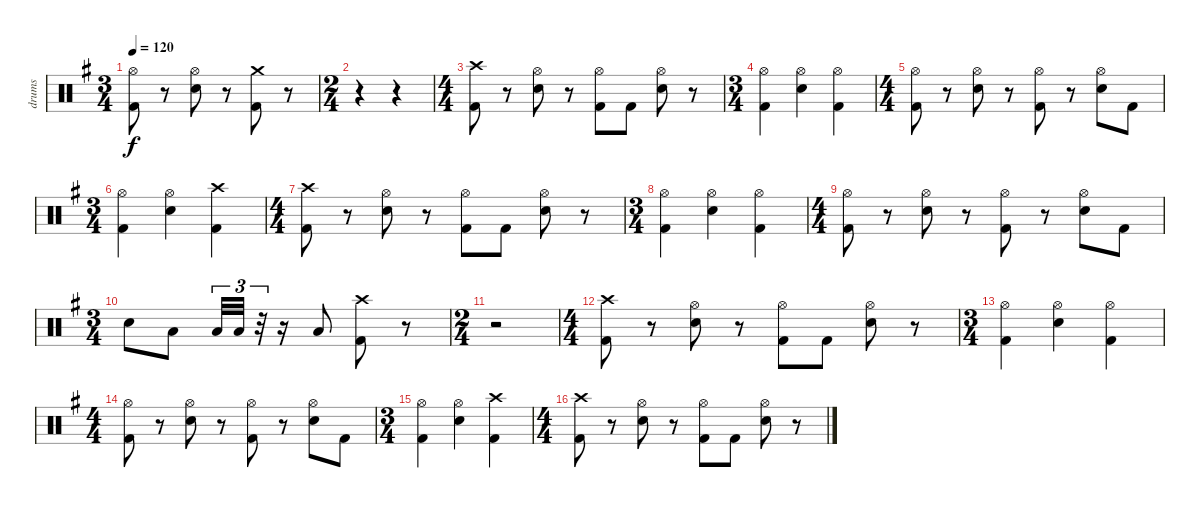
\track ("drums" "drums") {instrument percussion}
\staff {score}
\articulation defaults
\ts (3 4)
\tempo 120
\clef neutral
\ks g
("Hi-Hat (open)" "Kick (hit) 2").8{dy f} r.8 ("Hi-Hat (open)" "Snare (hit) 2").8 r.8 ("Crash medium (hit)" "Kick (hit) 2").8 r.8 |
\ts (2 4)
r.4 r.4 |
\ts (4 4)
("Crash high (hit)" "Kick (hit) 2").8 r.8 ("Hi-Hat (open)" "Snare (hit) 2").8 r.8 ("Hi-Hat (open)" "Kick (hit) 2").8 "Kick (hit) 2".8 ("Hi-Hat (open)" "Snare (hit) 2").8 r.8 |
\ts (3 4)
("Hi-Hat (open)" "Kick (hit) 2").4 ("Hi-Hat (open)" "Snare (hit) 2").4 ("Hi-Hat (open)" "Kick (hit) 2").4 |
\ts (4 4)
("Hi-Hat (open)" "Kick (hit) 2").8 r.8 ("Hi-Hat (open)" "Snare (hit) 2").8 r.8 ("Hi-Hat (open)" "Kick (hit) 2").8 r.8 ("Hi-Hat (open)" "Snare (hit) 2").8 "Kick (hit) 2".8 |
\ts (3 4)
("Hi-Hat (open)" "Kick (hit) 2").4 ("Hi-Hat (open)" "Snare (hit) 2").4 ("Crash high (hit)" "Kick (hit) 2").4 |
\ts (4 4)
("Crash high (hit)" "Kick (hit) 2").8 r.8 ("Hi-Hat (open)" "Snare (hit) 2").8 r.8 ("Hi-Hat (open)" "Kick (hit) 2").8 "Kick (hit) 2".8 ("Hi-Hat (open)" "Snare (hit) 2").8 r.8 |
\ts (3 4)
("Hi-Hat (open)" "Kick (hit) 2").4 ("Hi-Hat (open)" "Snare (hit) 2").4 ("Hi-Hat (open)" "Kick (hit) 2").4 |
\ts (4 4)
("Hi-Hat (open)" "Kick (hit) 2").8 r.8 ("Hi-Hat (open)" "Snare (hit) 2").8 r.8 ("Hi-Hat (open)" "Kick (hit) 2").8 r.8 ("Hi-Hat (open)" "Snare (hit) 2").8 "Kick (hit) 2".8 |
\ts (3 4)
"Snare (hit) 2".8 "Low Floor Tom (hit)".8 "Low Tom (hit)".32{tu (3 2)} "Low Tom (hit)".32{tu (3 2)} r.32{tu (3 2)} r.16 "Low Floor Tom (hit)".8 ("Crash high (hit)" "Kick (hit) 2").8 r.8 |
\ts (2 4)
r.2 |
\ts (4 4)
("Crash high (hit)" "Kick (hit) 2").8 r.8 ("Hi-Hat (open)" "Snare (hit) 2").8 r.8 ("Hi-Hat (open)" "Kick (hit) 2").8 "Kick (hit) 2".8 ("Hi-Hat (open)" "Snare (hit) 2").8 r.8 |
\ts (3 4)
("Hi-Hat (open)" "Kick (hit) 2").4 ("Hi-Hat (open)" "Snare (hit) 2").4 ("Hi-Hat (open)" "Kick (hit) 2").4 |
\ts (4 4)
("Hi-Hat (open)" "Kick (hit) 2").8 r.8 ("Hi-Hat (open)" "Snare (hit) 2").8 r.8 ("Hi-Hat (open)" "Kick (hit) 2").8 r.8 ("Hi-Hat (open)" "Snare (hit) 2").8 "Kick (hit) 2".8 |
\ts (3 4)
("Hi-Hat (open)" "Kick (hit) 2").4 ("Hi-Hat (open)" "Snare (hit) 2").4 ("Crash high (hit)" "Kick (hit) 2").4 |
\ts (4 4)
("Crash high (hit)" "Kick (hit) 2").8 r.8 ("Hi-Hat (open)" "Snare (hit) 2").8 r.8 ("Hi-Hat (open)" "Kick (hit) 2").8 "Kick (hit) 2".8 ("Hi-Hat (open)" "Snare (hit) 2").8 r.8
